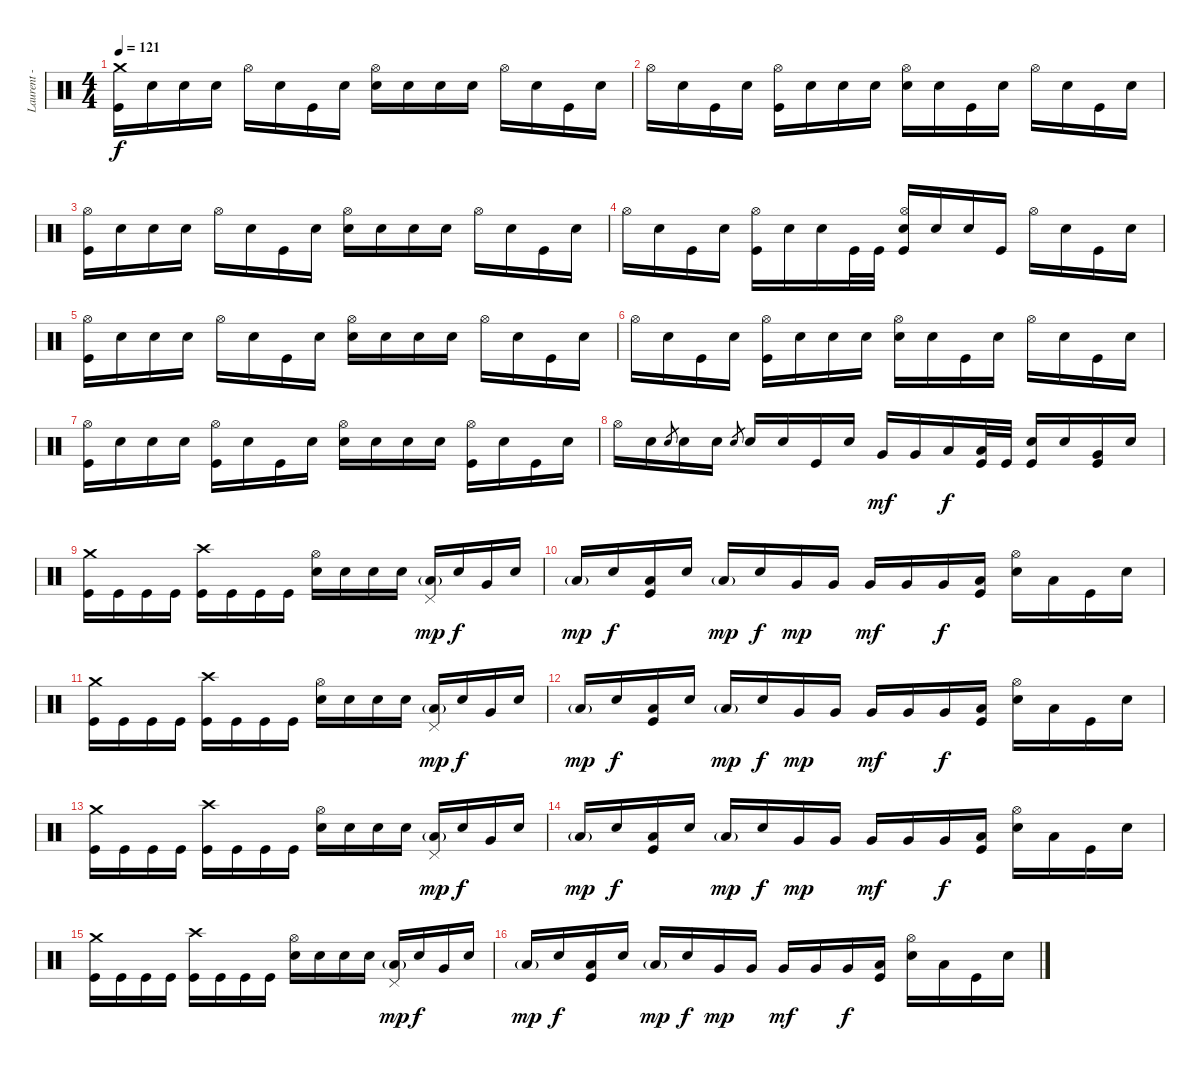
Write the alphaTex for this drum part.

\track ("Laurent - Batterie" "Laurent - ") {instrument percussion}
\staff {score}
\articulation defaults
\ts (4 4)
\section ("" "")
\tempo 121
\clef neutral
\ks c
("Crash medium (hit)" "Kick (hit)").16{dy f volume 16 balance 8} "Snare (hit)".16 "Snare (hit)".16 "Snare (hit)".16 "Hi-Hat (open)".16 "Snare (hit)".16 "Kick (hit)".16 "Snare (hit)".16 ("Hi-Hat (open)" "Electric Snare (hit)").16 "Snare (hit)".16 "Snare (hit)".16 "Snare (hit)".16 "Hi-Hat (open)".16 "Snare (hit)".16 "Kick (hit)".16 "Snare (hit)".16 |
"Hi-Hat (open)".16 "Snare (hit)".16 "Kick (hit)".16 "Snare (hit)".16 ("Hi-Hat (open)" "Kick (hit)").16 "Snare (hit)".16 "Snare (hit)".16 "Snare (hit)".16 ("Hi-Hat (open)" "Electric Snare (hit)").16 "Snare (hit)".16 "Kick (hit)".16 "Snare (hit)".16 "Hi-Hat (open)".16 "Snare (hit)".16 "Kick (hit)".16 "Snare (hit)".16 |
("Hi-Hat (open)" "Kick (hit)").16 "Snare (hit)".16 "Snare (hit)".16 "Snare (hit)".16 "Hi-Hat (open)".16 "Snare (hit)".16 "Kick (hit)".16 "Snare (hit)".16 ("Hi-Hat (open)" "Electric Snare (hit)").16 "Snare (hit)".16 "Snare (hit)".16 "Snare (hit)".16 "Hi-Hat (open)".16 "Snare (hit)".16 "Kick (hit)".16 "Snare (hit)".16 |
"Hi-Hat (open)".16 "Snare (hit)".16 "Kick (hit)".16 "Snare (hit)".16 ("Hi-Hat (open)" "Kick (hit)").16 "Snare (hit)".16 "Snare (hit)".16 "Kick (hit)".32 "Kick (hit)".32 ("Hi-Hat (open)" "Electric Snare (hit)" "Kick (hit)").16 "Snare (hit)".16 "Snare (hit)".16 "Kick (hit)".16 "Hi-Hat (open)".16 "Snare (hit)".16 "Kick (hit)".16 "Snare (hit)".16 |
("Hi-Hat (open)" "Kick (hit)").16 "Snare (hit)".16 "Snare (hit)".16 "Snare (hit)".16 "Hi-Hat (open)".16 "Snare (hit)".16 "Kick (hit)".16 "Snare (hit)".16 ("Hi-Hat (open)" "Electric Snare (hit)").16 "Snare (hit)".16 "Snare (hit)".16 "Snare (hit)".16 "Hi-Hat (open)".16 "Snare (hit)".16 "Kick (hit)".16 "Snare (hit)".16 |
"Hi-Hat (open)".16 "Snare (hit)".16 "Kick (hit)".16 "Snare (hit)".16 ("Hi-Hat (open)" "Kick (hit)").16 "Snare (hit)".16 "Snare (hit)".16 "Snare (hit)".16 ("Hi-Hat (open)" "Electric Snare (hit)").16 "Snare (hit)".16 "Kick (hit)".16 "Snare (hit)".16 "Hi-Hat (open)".16 "Snare (hit)".16 "Kick (hit)".16 "Snare (hit)".16 |
("Hi-Hat (open)" "Kick (hit)").16 "Snare (hit)".16 "Snare (hit)".16 "Snare (hit)".16 ("Hi-Hat (open)" "Kick (hit)").16 "Snare (hit)".16 "Kick (hit)".16 "Snare (hit)".16 ("Hi-Hat (open)" "Electric Snare (hit)").16 "Snare (hit)".16 "Snare (hit)".16 "Snare (hit)".16 ("Hi-Hat (open)" "Kick (hit)").16 "Snare (hit)".16 "Kick (hit)".16 "Snare (hit)".16 |
"Hi-Hat (open)".16 "Snare (hit)".16 "Electric Snare (hit)".8{gr} "Electric Snare (hit)".16 "Snare (hit)".16 "Electric Snare (hit)".8{gr} "Electric Snare (hit)".16 "Snare (hit)".16 "Kick (hit)".16 "Snare (hit)".16 "Very Low Tom (hit)".16{dy mf} "Very Low Tom (hit)".16 "Low Floor Tom (hit)".16{dy f} ("Low Floor Tom (hit)" "Kick (hit)").32 "Kick (hit)".32 ("Electric Snare (hit)" "Kick (hit)").16 "Snare (hit)".16 ("Very Low Tom (hit)" "Kick (hit)").16 "Snare (hit)".16 |
\section ("" "")
("Crash medium (hit)" "Kick (hit)").16{volume 16 balance 8} "Kick (hit)".16 "Kick (hit)".16 "Kick (hit)".16 ("Crash high (hit)" "Kick (hit)").16 "Kick (hit)".16 "Kick (hit)".16 "Kick (hit)".16 ("Hi-Hat (open)" "Electric Snare (hit)").16 "Snare (hit)".16 "Snare (hit)".16 "Snare (hit)".16 ("Pedal Hi-Hat (hit)" "Low Floor Tom (hit)"{g}).16{dy mp} "Snare (hit)".16{dy f} "Very Low Tom (hit)".16 "Snare (hit)".16 |
"Low Floor Tom (hit)"{g}.16{dy mp} "Snare (hit)".16{dy f} ("Low Floor Tom (hit)" "Kick (hit)").16 "Snare (hit)".16 "Low Floor Tom (hit)"{g}.16{dy mp} "Snare (hit)".16{dy f} "Very Low Tom (hit)".16{dy mp} "Very Low Tom (hit)".16 "Very Low Tom (hit)".16{dy mf} "Very Low Tom (hit)".16 "Very Low Tom (hit)".16{dy f} ("Low Floor Tom (hit)" "Kick (hit)").16 ("Hi-Hat (open)" "Electric Snare (hit)").16 "Low Floor Tom (hit)".16 "Kick (hit)".16 "Snare (hit)".16 |
("Crash medium (hit)" "Kick (hit)").16 "Kick (hit)".16 "Kick (hit)".16 "Kick (hit)".16 ("Crash high (hit)" "Kick (hit)").16 "Kick (hit)".16 "Kick (hit)".16 "Kick (hit)".16 ("Hi-Hat (open)" "Electric Snare (hit)").16 "Snare (hit)".16 "Snare (hit)".16 "Snare (hit)".16 ("Pedal Hi-Hat (hit)" "Low Floor Tom (hit)"{g}).16{dy mp} "Snare (hit)".16{dy f} "Very Low Tom (hit)".16 "Snare (hit)".16 |
"Low Floor Tom (hit)"{g}.16{dy mp} "Snare (hit)".16{dy f} ("Low Floor Tom (hit)" "Kick (hit)").16 "Snare (hit)".16 "Low Floor Tom (hit)"{g}.16{dy mp} "Snare (hit)".16{dy f} "Very Low Tom (hit)".16{dy mp} "Very Low Tom (hit)".16 "Very Low Tom (hit)".16{dy mf} "Very Low Tom (hit)".16 "Very Low Tom (hit)".16{dy f} ("Low Floor Tom (hit)" "Kick (hit)").16 ("Hi-Hat (open)" "Electric Snare (hit)").16 "Low Floor Tom (hit)".16 "Kick (hit)".16 "Snare (hit)".16 |
("Crash medium (hit)" "Kick (hit)").16 "Kick (hit)".16 "Kick (hit)".16 "Kick (hit)".16 ("Crash high (hit)" "Kick (hit)").16 "Kick (hit)".16 "Kick (hit)".16 "Kick (hit)".16 ("Hi-Hat (open)" "Electric Snare (hit)").16 "Snare (hit)".16 "Snare (hit)".16 "Snare (hit)".16 ("Pedal Hi-Hat (hit)" "Low Floor Tom (hit)"{g}).16{dy mp} "Snare (hit)".16{dy f} "Very Low Tom (hit)".16 "Snare (hit)".16 |
"Low Floor Tom (hit)"{g}.16{dy mp} "Snare (hit)".16{dy f} ("Low Floor Tom (hit)" "Kick (hit)").16 "Snare (hit)".16 "Low Floor Tom (hit)"{g}.16{dy mp} "Snare (hit)".16{dy f} "Very Low Tom (hit)".16{dy mp} "Very Low Tom (hit)".16 "Very Low Tom (hit)".16{dy mf} "Very Low Tom (hit)".16 "Very Low Tom (hit)".16{dy f} ("Low Floor Tom (hit)" "Kick (hit)").16 ("Hi-Hat (open)" "Electric Snare (hit)").16 "Low Floor Tom (hit)".16 "Kick (hit)".16 "Snare (hit)".16 |
("Crash medium (hit)" "Kick (hit)").16 "Kick (hit)".16 "Kick (hit)".16 "Kick (hit)".16 ("Crash high (hit)" "Kick (hit)").16 "Kick (hit)".16 "Kick (hit)".16 "Kick (hit)".16 ("Hi-Hat (open)" "Electric Snare (hit)").16 "Snare (hit)".16 "Snare (hit)".16 "Snare (hit)".16 ("Pedal Hi-Hat (hit)" "Low Floor Tom (hit)"{g}).16{dy mp} "Snare (hit)".16{dy f} "Very Low Tom (hit)".16 "Snare (hit)".16 |
"Low Floor Tom (hit)"{g}.16{dy mp} "Snare (hit)".16{dy f} ("Low Floor Tom (hit)" "Kick (hit)").16 "Snare (hit)".16 "Low Floor Tom (hit)"{g}.16{dy mp} "Snare (hit)".16{dy f} "Very Low Tom (hit)".16{dy mp} "Very Low Tom (hit)".16 "Very Low Tom (hit)".16{dy mf} "Very Low Tom (hit)".16 "Very Low Tom (hit)".16{dy f} ("Low Floor Tom (hit)" "Kick (hit)").16 ("Hi-Hat (open)" "Electric Snare (hit)").16 "Low Floor Tom (hit)".16 "Kick (hit)".16 "Snare (hit)".16
